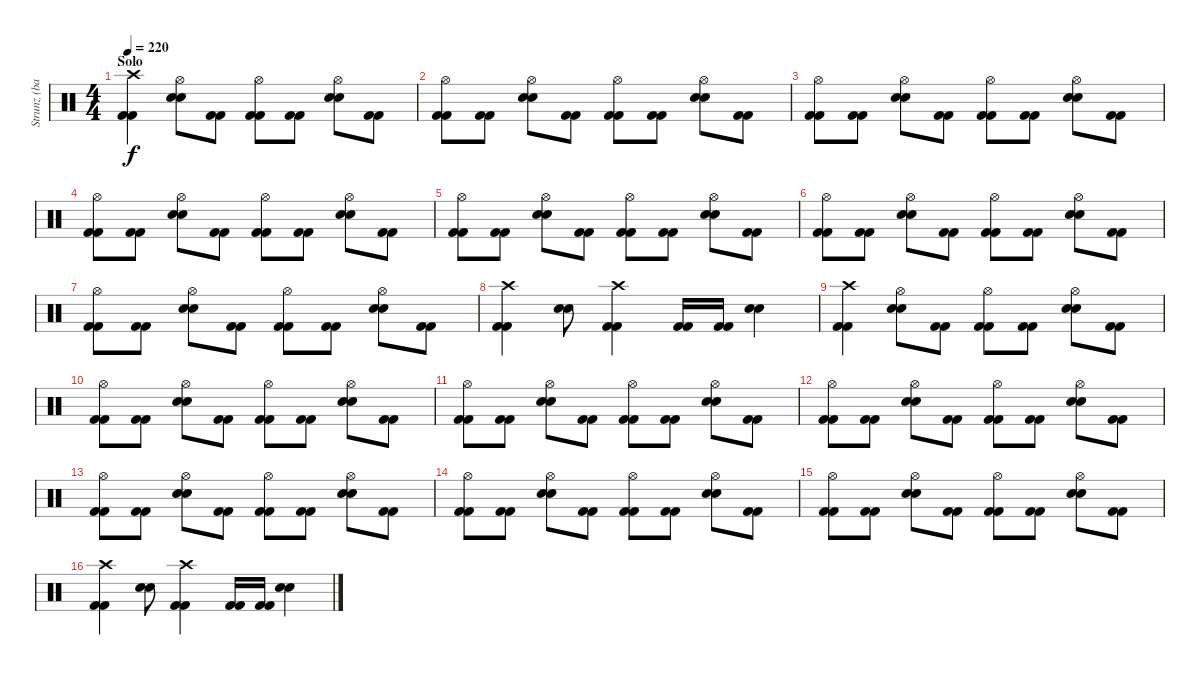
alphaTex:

\track ("Strunz (bateria)" "Strunz (ba") {instrument percussion}
\staff {score}
\articulation defaults
\ts (4 4)
\section ("" "Solo")
\tempo 220
\clef neutral
\ks c
("Crash high (hit)" "Kick (hit) 2" "Kick (hit) 2").4{dy f} ("Hi-Hat (open)" "Snare (hit) 2" "Snare (hit) 2").8 ("Kick (hit) 2" "Kick (hit) 2").8 ("Hi-Hat (open)" "Kick (hit) 2" "Kick (hit) 2").8 ("Kick (hit) 2" "Kick (hit) 2").8 ("Hi-Hat (open)" "Snare (hit) 2" "Snare (hit) 2").8 ("Kick (hit) 2" "Kick (hit) 2").8 |
("Hi-Hat (open)" "Kick (hit) 2" "Kick (hit) 2").8 ("Kick (hit) 2" "Kick (hit) 2").8 ("Hi-Hat (open)" "Snare (hit) 2" "Snare (hit) 2").8 ("Kick (hit) 2" "Kick (hit) 2").8 ("Hi-Hat (open)" "Kick (hit) 2" "Kick (hit) 2").8 ("Kick (hit) 2" "Kick (hit) 2").8 ("Hi-Hat (open)" "Snare (hit) 2" "Snare (hit) 2").8 ("Kick (hit) 2" "Kick (hit) 2").8 |
("Hi-Hat (open)" "Kick (hit) 2" "Kick (hit) 2").8 ("Kick (hit) 2" "Kick (hit) 2").8 ("Hi-Hat (open)" "Snare (hit) 2" "Snare (hit) 2").8 ("Kick (hit) 2" "Kick (hit) 2").8 ("Hi-Hat (open)" "Kick (hit) 2" "Kick (hit) 2").8 ("Kick (hit) 2" "Kick (hit) 2").8 ("Hi-Hat (open)" "Snare (hit) 2" "Snare (hit) 2").8 ("Kick (hit) 2" "Kick (hit) 2").8 |
("Hi-Hat (open)" "Kick (hit) 2" "Kick (hit) 2").8 ("Kick (hit) 2" "Kick (hit) 2").8 ("Hi-Hat (open)" "Snare (hit) 2" "Snare (hit) 2").8 ("Kick (hit) 2" "Kick (hit) 2").8 ("Hi-Hat (open)" "Kick (hit) 2" "Kick (hit) 2").8 ("Kick (hit) 2" "Kick (hit) 2").8 ("Hi-Hat (open)" "Snare (hit) 2" "Snare (hit) 2").8 ("Kick (hit) 2" "Kick (hit) 2").8 |
("Hi-Hat (open)" "Kick (hit) 2" "Kick (hit) 2").8 ("Kick (hit) 2" "Kick (hit) 2").8 ("Hi-Hat (open)" "Snare (hit) 2" "Snare (hit) 2").8 ("Kick (hit) 2" "Kick (hit) 2").8 ("Hi-Hat (open)" "Kick (hit) 2" "Kick (hit) 2").8 ("Kick (hit) 2" "Kick (hit) 2").8 ("Hi-Hat (open)" "Snare (hit) 2" "Snare (hit) 2").8 ("Kick (hit) 2" "Kick (hit) 2").8 |
("Hi-Hat (open)" "Kick (hit) 2" "Kick (hit) 2").8 ("Kick (hit) 2" "Kick (hit) 2").8 ("Hi-Hat (open)" "Snare (hit) 2" "Snare (hit) 2").8 ("Kick (hit) 2" "Kick (hit) 2").8 ("Hi-Hat (open)" "Kick (hit) 2" "Kick (hit) 2").8 ("Kick (hit) 2" "Kick (hit) 2").8 ("Hi-Hat (open)" "Snare (hit) 2" "Snare (hit) 2").8 ("Kick (hit) 2" "Kick (hit) 2").8 |
("Hi-Hat (open)" "Kick (hit) 2" "Kick (hit) 2").8 ("Kick (hit) 2" "Kick (hit) 2").8 ("Hi-Hat (open)" "Snare (hit) 2" "Snare (hit) 2").8 ("Kick (hit) 2" "Kick (hit) 2").8 ("Hi-Hat (open)" "Kick (hit) 2" "Kick (hit) 2").8 ("Kick (hit) 2" "Kick (hit) 2").8 ("Hi-Hat (open)" "Snare (hit) 2" "Snare (hit) 2").8 ("Kick (hit) 2" "Kick (hit) 2").8 |
("Crash high (hit)" "Kick (hit) 2" "Kick (hit) 2").4 ("Snare (hit) 2" "Snare (hit) 2").8 ("Crash high (hit)" "Kick (hit) 2" "Kick (hit) 2").4 ("Kick (hit) 2" "Kick (hit) 2").16 ("Kick (hit) 2" "Kick (hit) 2").16 ("Snare (hit) 2" "Snare (hit) 2").4 |
("Crash high (hit)" "Kick (hit) 2" "Kick (hit) 2").4 ("Hi-Hat (open)" "Snare (hit) 2" "Snare (hit) 2").8 ("Kick (hit) 2" "Kick (hit) 2").8 ("Hi-Hat (open)" "Kick (hit) 2" "Kick (hit) 2").8 ("Kick (hit) 2" "Kick (hit) 2").8 ("Hi-Hat (open)" "Snare (hit) 2" "Snare (hit) 2").8 ("Kick (hit) 2" "Kick (hit) 2").8 |
("Hi-Hat (open)" "Kick (hit) 2" "Kick (hit) 2").8 ("Kick (hit) 2" "Kick (hit) 2").8 ("Hi-Hat (open)" "Snare (hit) 2" "Snare (hit) 2").8 ("Kick (hit) 2" "Kick (hit) 2").8 ("Hi-Hat (open)" "Kick (hit) 2" "Kick (hit) 2").8 ("Kick (hit) 2" "Kick (hit) 2").8 ("Hi-Hat (open)" "Snare (hit) 2" "Snare (hit) 2").8 ("Kick (hit) 2" "Kick (hit) 2").8 |
("Hi-Hat (open)" "Kick (hit) 2" "Kick (hit) 2").8 ("Kick (hit) 2" "Kick (hit) 2").8 ("Hi-Hat (open)" "Snare (hit) 2" "Snare (hit) 2").8 ("Kick (hit) 2" "Kick (hit) 2").8 ("Hi-Hat (open)" "Kick (hit) 2" "Kick (hit) 2").8 ("Kick (hit) 2" "Kick (hit) 2").8 ("Hi-Hat (open)" "Snare (hit) 2" "Snare (hit) 2").8 ("Kick (hit) 2" "Kick (hit) 2").8 |
("Hi-Hat (open)" "Kick (hit) 2" "Kick (hit) 2").8 ("Kick (hit) 2" "Kick (hit) 2").8 ("Hi-Hat (open)" "Snare (hit) 2" "Snare (hit) 2").8 ("Kick (hit) 2" "Kick (hit) 2").8 ("Hi-Hat (open)" "Kick (hit) 2" "Kick (hit) 2").8 ("Kick (hit) 2" "Kick (hit) 2").8 ("Hi-Hat (open)" "Snare (hit) 2" "Snare (hit) 2").8 ("Kick (hit) 2" "Kick (hit) 2").8 |
("Hi-Hat (open)" "Kick (hit) 2" "Kick (hit) 2").8 ("Kick (hit) 2" "Kick (hit) 2").8 ("Hi-Hat (open)" "Snare (hit) 2" "Snare (hit) 2").8 ("Kick (hit) 2" "Kick (hit) 2").8 ("Hi-Hat (open)" "Kick (hit) 2" "Kick (hit) 2").8 ("Kick (hit) 2" "Kick (hit) 2").8 ("Hi-Hat (open)" "Snare (hit) 2" "Snare (hit) 2").8 ("Kick (hit) 2" "Kick (hit) 2").8 |
("Hi-Hat (open)" "Kick (hit) 2" "Kick (hit) 2").8 ("Kick (hit) 2" "Kick (hit) 2").8 ("Hi-Hat (open)" "Snare (hit) 2" "Snare (hit) 2").8 ("Kick (hit) 2" "Kick (hit) 2").8 ("Hi-Hat (open)" "Kick (hit) 2" "Kick (hit) 2").8 ("Kick (hit) 2" "Kick (hit) 2").8 ("Hi-Hat (open)" "Snare (hit) 2" "Snare (hit) 2").8 ("Kick (hit) 2" "Kick (hit) 2").8 |
("Hi-Hat (open)" "Kick (hit) 2" "Kick (hit) 2").8 ("Kick (hit) 2" "Kick (hit) 2").8 ("Hi-Hat (open)" "Snare (hit) 2" "Snare (hit) 2").8 ("Kick (hit) 2" "Kick (hit) 2").8 ("Hi-Hat (open)" "Kick (hit) 2" "Kick (hit) 2").8 ("Kick (hit) 2" "Kick (hit) 2").8 ("Hi-Hat (open)" "Snare (hit) 2" "Snare (hit) 2").8 ("Kick (hit) 2" "Kick (hit) 2").8 |
("Crash high (hit)" "Kick (hit) 2" "Kick (hit) 2").4 ("Snare (hit) 2" "Snare (hit) 2").8 ("Crash high (hit)" "Kick (hit) 2" "Kick (hit) 2").4 ("Kick (hit) 2" "Kick (hit) 2").16 ("Kick (hit) 2" "Kick (hit) 2").16 ("Snare (hit) 2" "Snare (hit) 2").4
